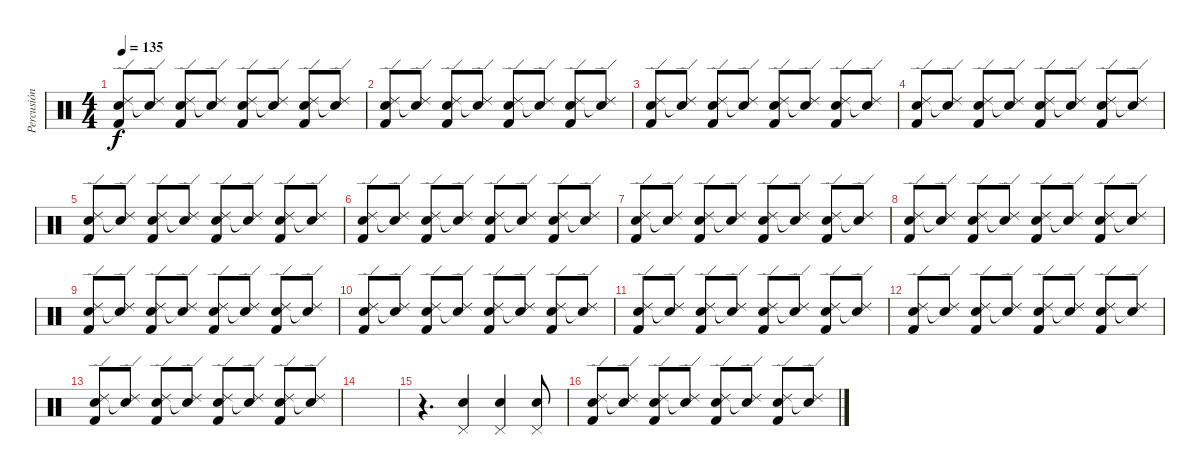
\track ("Percusión" "Percusión") {instrument percussion}
\staff {score}
\articulation defaults
\ts (4 4)
\tempo 135
\clef neutral
\ks c
("Kick (hit) 2" "Ride (edge) 2" "Electric Snare (hit)").8{dy f} ("Ride (edge) 2" "Snare (hit)"{t}).8 ("Kick (hit) 2" "Ride (edge) 2" "Electric Snare (hit)").8 ("Ride (edge) 2" "Snare (hit)"{t}).8 ("Kick (hit) 2" "Ride (edge) 2" "Electric Snare (hit)").8 ("Ride (edge) 2" "Snare (hit)"{t}).8 ("Kick (hit) 2" "Ride (edge) 2" "Electric Snare (hit)").8 ("Ride (edge) 2" "Snare (hit)"{t}).8 |
("Kick (hit) 2" "Ride (edge) 2" "Electric Snare (hit)").8 ("Ride (edge) 2" "Snare (hit)"{t}).8 ("Kick (hit) 2" "Ride (edge) 2" "Electric Snare (hit)").8 ("Ride (edge) 2" "Snare (hit)"{t}).8 ("Kick (hit) 2" "Ride (edge) 2" "Electric Snare (hit)").8 ("Ride (edge) 2" "Snare (hit)"{t}).8 ("Kick (hit) 2" "Ride (edge) 2" "Electric Snare (hit)").8 ("Ride (edge) 2" "Snare (hit)"{t}).8 |
("Kick (hit) 2" "Ride (edge) 2" "Electric Snare (hit)").8 ("Ride (edge) 2" "Snare (hit)"{t}).8 ("Kick (hit) 2" "Ride (edge) 2" "Electric Snare (hit)").8 ("Ride (edge) 2" "Snare (hit)"{t}).8 ("Kick (hit) 2" "Ride (edge) 2" "Electric Snare (hit)").8 ("Ride (edge) 2" "Snare (hit)"{t}).8 ("Kick (hit) 2" "Ride (edge) 2" "Electric Snare (hit)").8 ("Ride (edge) 2" "Snare (hit)"{t}).8 |
("Kick (hit) 2" "Ride (edge) 2" "Electric Snare (hit)").8 ("Ride (edge) 2" "Snare (hit)"{t}).8 ("Kick (hit) 2" "Ride (edge) 2" "Electric Snare (hit)").8 ("Ride (edge) 2" "Snare (hit)"{t}).8 ("Kick (hit) 2" "Ride (edge) 2" "Electric Snare (hit)").8 ("Ride (edge) 2" "Snare (hit)"{t}).8 ("Kick (hit) 2" "Ride (edge) 2" "Electric Snare (hit)").8 ("Ride (edge) 2" "Snare (hit)"{t}).8 |
("Kick (hit) 2" "Ride (edge) 2" "Electric Snare (hit)").8 ("Ride (edge) 2" "Snare (hit)"{t}).8 ("Kick (hit) 2" "Ride (edge) 2" "Electric Snare (hit)").8 ("Ride (edge) 2" "Snare (hit)"{t}).8 ("Kick (hit) 2" "Ride (edge) 2" "Electric Snare (hit)").8 ("Ride (edge) 2" "Snare (hit)"{t}).8 ("Kick (hit) 2" "Ride (edge) 2" "Electric Snare (hit)").8 ("Ride (edge) 2" "Snare (hit)"{t}).8 |
("Kick (hit) 2" "Ride (edge) 2" "Electric Snare (hit)").8 ("Ride (edge) 2" "Snare (hit)"{t}).8 ("Kick (hit) 2" "Ride (edge) 2" "Electric Snare (hit)").8 ("Ride (edge) 2" "Snare (hit)"{t}).8 ("Kick (hit) 2" "Ride (edge) 2" "Electric Snare (hit)").8 ("Ride (edge) 2" "Snare (hit)"{t}).8 ("Kick (hit) 2" "Ride (edge) 2" "Electric Snare (hit)").8 ("Ride (edge) 2" "Snare (hit)"{t}).8 |
("Kick (hit) 2" "Ride (edge) 2" "Electric Snare (hit)").8 ("Ride (edge) 2" "Snare (hit)"{t}).8 ("Kick (hit) 2" "Ride (edge) 2" "Electric Snare (hit)").8 ("Ride (edge) 2" "Snare (hit)"{t}).8 ("Kick (hit) 2" "Ride (edge) 2" "Electric Snare (hit)").8 ("Ride (edge) 2" "Snare (hit)"{t}).8 ("Kick (hit) 2" "Ride (edge) 2" "Electric Snare (hit)").8 ("Ride (edge) 2" "Snare (hit)"{t}).8 |
("Kick (hit) 2" "Ride (edge) 2" "Electric Snare (hit)").8 ("Ride (edge) 2" "Snare (hit)"{t}).8 ("Kick (hit) 2" "Ride (edge) 2" "Electric Snare (hit)").8 ("Ride (edge) 2" "Snare (hit)"{t}).8 ("Kick (hit) 2" "Ride (edge) 2" "Electric Snare (hit)").8 ("Ride (edge) 2" "Snare (hit)"{t}).8 ("Kick (hit) 2" "Ride (edge) 2" "Electric Snare (hit)").8 ("Ride (edge) 2" "Snare (hit)"{t}).8 |
("Kick (hit) 2" "Ride (edge) 2" "Electric Snare (hit)").8 ("Ride (edge) 2" "Snare (hit)"{t}).8 ("Kick (hit) 2" "Ride (edge) 2" "Electric Snare (hit)").8 ("Ride (edge) 2" "Snare (hit)"{t}).8 ("Kick (hit) 2" "Ride (edge) 2" "Electric Snare (hit)").8 ("Ride (edge) 2" "Snare (hit)"{t}).8 ("Kick (hit) 2" "Ride (edge) 2" "Electric Snare (hit)").8 ("Ride (edge) 2" "Snare (hit)"{t}).8 |
("Kick (hit) 2" "Ride (edge) 2" "Electric Snare (hit)").8 ("Ride (edge) 2" "Snare (hit)"{t}).8 ("Kick (hit) 2" "Ride (edge) 2" "Electric Snare (hit)").8 ("Ride (edge) 2" "Snare (hit)"{t}).8 ("Kick (hit) 2" "Ride (edge) 2" "Electric Snare (hit)").8 ("Ride (edge) 2" "Snare (hit)"{t}).8 ("Kick (hit) 2" "Ride (edge) 2" "Electric Snare (hit)").8 ("Ride (edge) 2" "Snare (hit)"{t}).8 |
("Kick (hit) 2" "Ride (edge) 2" "Electric Snare (hit)").8 ("Ride (edge) 2" "Snare (hit)"{t}).8 ("Kick (hit) 2" "Ride (edge) 2" "Electric Snare (hit)").8 ("Ride (edge) 2" "Snare (hit)"{t}).8 ("Kick (hit) 2" "Ride (edge) 2" "Electric Snare (hit)").8 ("Ride (edge) 2" "Snare (hit)"{t}).8 ("Kick (hit) 2" "Ride (edge) 2" "Electric Snare (hit)").8 ("Ride (edge) 2" "Snare (hit)"{t}).8 |
("Kick (hit) 2" "Ride (edge) 2" "Electric Snare (hit)").8 ("Ride (edge) 2" "Snare (hit)"{t}).8 ("Kick (hit) 2" "Ride (edge) 2" "Electric Snare (hit)").8 ("Ride (edge) 2" "Snare (hit)"{t}).8 ("Kick (hit) 2" "Ride (edge) 2" "Electric Snare (hit)").8 ("Ride (edge) 2" "Snare (hit)"{t}).8 ("Kick (hit) 2" "Ride (edge) 2" "Electric Snare (hit)").8 ("Ride (edge) 2" "Snare (hit)"{t}).8 |
("Kick (hit) 2" "Ride (edge) 2" "Electric Snare (hit)").8 ("Ride (edge) 2" "Snare (hit)"{t}).8 ("Kick (hit) 2" "Ride (edge) 2" "Electric Snare (hit)").8 ("Ride (edge) 2" "Snare (hit)"{t}).8 ("Kick (hit) 2" "Ride (edge) 2" "Electric Snare (hit)").8 ("Ride (edge) 2" "Snare (hit)"{t}).8 ("Kick (hit) 2" "Ride (edge) 2" "Electric Snare (hit)").8 ("Ride (edge) 2" "Snare (hit)"{t}).8 |
|
r.4{d} ("Pedal Hi-Hat (hit)" "Electric Snare (hit)").4 ("Pedal Hi-Hat (hit)" "Electric Snare (hit)").4 ("Pedal Hi-Hat (hit)" "Electric Snare (hit)").8 |
("Kick (hit) 2" "Ride (edge) 2" "Electric Snare (hit)").8 ("Ride (edge) 2" "Snare (hit)"{t}).8 ("Kick (hit) 2" "Ride (edge) 2" "Electric Snare (hit)").8 ("Ride (edge) 2" "Snare (hit)"{t}).8 ("Kick (hit) 2" "Ride (edge) 2" "Electric Snare (hit)").8 ("Ride (edge) 2" "Snare (hit)"{t}).8 ("Kick (hit) 2" "Ride (edge) 2" "Electric Snare (hit)").8 ("Ride (edge) 2" "Snare (hit)"{t}).8
